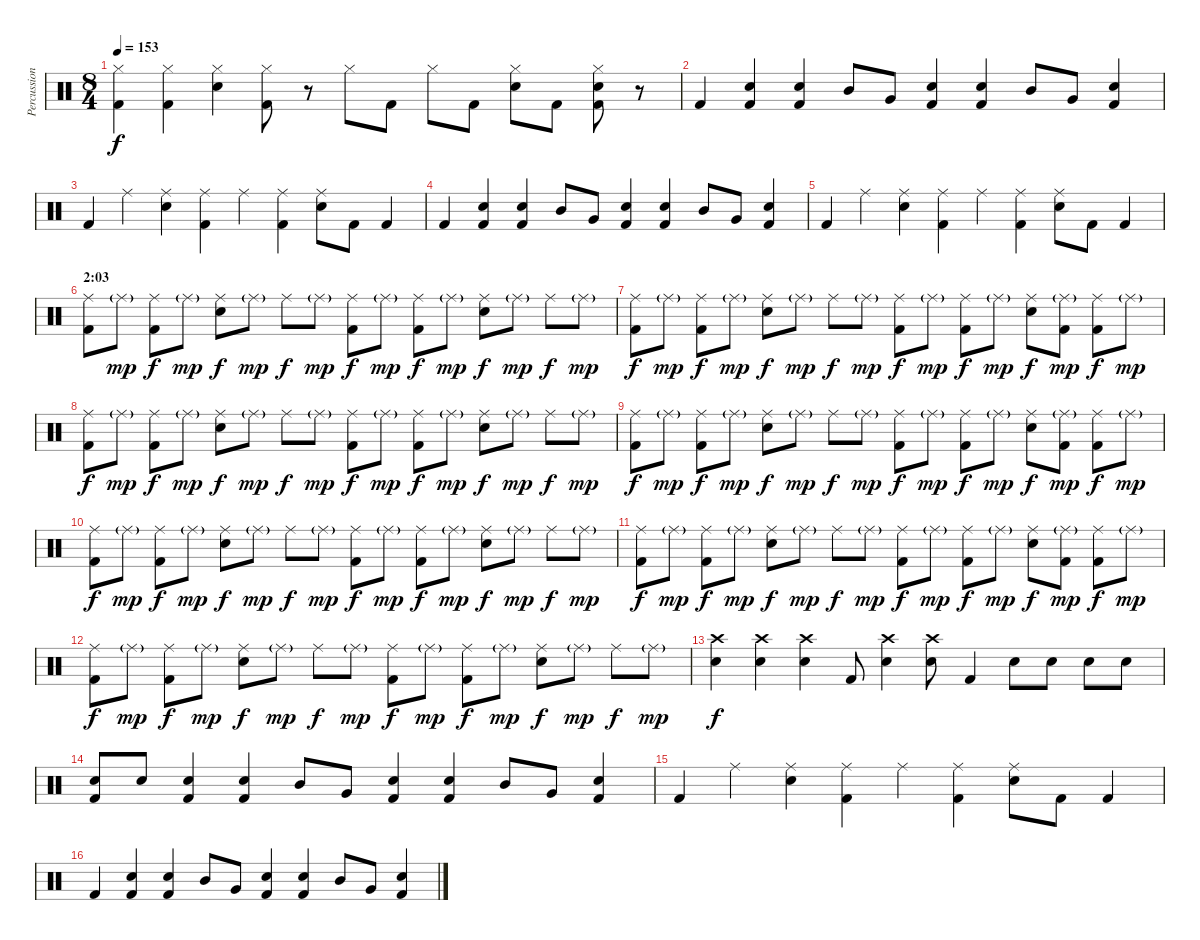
\track ("Percussion" "Percussion") {instrument percussion}
\staff {score}
\articulation defaults
\ts (8 4)
\tempo 153
\clef neutral
\ks c
("Hi-Hat (closed)" "Kick (hit) 2").4{dy f} ("Hi-Hat (closed)" "Kick (hit) 2").4 ("Hi-Hat (closed)" "Snare (hit) 2").4 ("Hi-Hat (closed)" "Kick (hit) 2").8 r.8 "Hi-Hat (closed)".8 "Kick (hit) 2".8 "Hi-Hat (closed)".8 "Kick (hit) 2".8 ("Hi-Hat (closed)" "Snare (hit) 2").8 "Kick (hit) 2".8 ("Hi-Hat (closed)" "Snare (hit) 2" "Kick (hit) 2").8 r.8 |
"Kick (hit) 2".4 ("Snare (hit) 2" "Kick (hit) 2").4 ("Snare (hit) 2" "Kick (hit) 2").4 "Mid Tom (hit)".8 "Very Low Tom (hit)".8 ("Snare (hit) 2" "Kick (hit) 2").4 ("Snare (hit) 2" "Kick (hit) 2").4 "Mid Tom (hit)".8 "Very Low Tom (hit)".8 ("Snare (hit) 2" "Kick (hit) 2").4 |
"Kick (hit) 2".4 "Ride (middle)".4 ("Ride (middle)" "Snare (hit) 2").4 ("Ride (middle)" "Kick (hit) 2").4 "Ride (middle)".4 ("Ride (middle)" "Kick (hit) 2").4 ("Ride (middle)" "Snare (hit) 2").8 "Kick (hit) 2".8 "Kick (hit) 2".4 |
"Kick (hit) 2".4 ("Snare (hit) 2" "Kick (hit) 2").4 ("Snare (hit) 2" "Kick (hit) 2").4 "Mid Tom (hit)".8 "Very Low Tom (hit)".8 ("Snare (hit) 2" "Kick (hit) 2").4 ("Snare (hit) 2" "Kick (hit) 2").4 "Mid Tom (hit)".8 "Very Low Tom (hit)".8 ("Snare (hit) 2" "Kick (hit) 2").4 |
"Kick (hit) 2".4 "Ride (middle)".4 ("Ride (middle)" "Snare (hit) 2").4 ("Ride (middle)" "Kick (hit) 2").4 "Ride (middle)".4 ("Ride (middle)" "Kick (hit) 2").4 ("Ride (middle)" "Snare (hit) 2").8 "Kick (hit) 2".8 "Kick (hit) 2".4 |
\section ("" "2:03")
("Ride (middle)" "Kick (hit) 2").8 "Ride (middle)"{g}.8{dy mp} ("Ride (middle)" "Kick (hit) 2").8{dy f} "Ride (middle)"{g}.8{dy mp} ("Ride (middle)" "Snare (hit) 2").8{dy f} "Ride (middle)"{g}.8{dy mp} "Ride (middle)".8{dy f} "Ride (middle)"{g}.8{dy mp} ("Ride (middle)" "Kick (hit) 2").8{dy f} "Ride (middle)"{g}.8{dy mp} ("Ride (middle)" "Kick (hit) 2").8{dy f} "Ride (middle)"{g}.8{dy mp} ("Ride (middle)" "Snare (hit) 2").8{dy f} "Ride (middle)"{g}.8{dy mp} "Ride (middle)".8{dy f} "Ride (middle)"{g}.8{dy mp} |
("Ride (middle)" "Kick (hit) 2").8{dy f} "Ride (middle)"{g}.8{dy mp} ("Ride (middle)" "Kick (hit) 2").8{dy f} "Ride (middle)"{g}.8{dy mp} ("Ride (middle)" "Snare (hit) 2").8{dy f} "Ride (middle)"{g}.8{dy mp} "Ride (middle)".8{dy f} "Ride (middle)"{g}.8{dy mp} ("Ride (middle)" "Kick (hit) 2").8{dy f} "Ride (middle)"{g}.8{dy mp} ("Ride (middle)" "Kick (hit) 2").8{dy f} "Ride (middle)"{g}.8{dy mp} ("Ride (middle)" "Snare (hit) 2").8{dy f} ("Ride (middle)"{g} "Kick (hit) 2").8{dy mp} ("Ride (middle)" "Kick (hit) 2").8{dy f} "Ride (middle)"{g}.8{dy mp} |
("Ride (middle)" "Kick (hit) 2").8{dy f} "Ride (middle)"{g}.8{dy mp} ("Ride (middle)" "Kick (hit) 2").8{dy f} "Ride (middle)"{g}.8{dy mp} ("Ride (middle)" "Snare (hit) 2").8{dy f} "Ride (middle)"{g}.8{dy mp} "Ride (middle)".8{dy f} "Ride (middle)"{g}.8{dy mp} ("Ride (middle)" "Kick (hit) 2").8{dy f} "Ride (middle)"{g}.8{dy mp} ("Ride (middle)" "Kick (hit) 2").8{dy f} "Ride (middle)"{g}.8{dy mp} ("Ride (middle)" "Snare (hit) 2").8{dy f} "Ride (middle)"{g}.8{dy mp} "Ride (middle)".8{dy f} "Ride (middle)"{g}.8{dy mp} |
("Ride (middle)" "Kick (hit) 2").8{dy f} "Ride (middle)"{g}.8{dy mp} ("Ride (middle)" "Kick (hit) 2").8{dy f} "Ride (middle)"{g}.8{dy mp} ("Ride (middle)" "Snare (hit) 2").8{dy f} "Ride (middle)"{g}.8{dy mp} "Ride (middle)".8{dy f} "Ride (middle)"{g}.8{dy mp} ("Ride (middle)" "Kick (hit) 2").8{dy f} "Ride (middle)"{g}.8{dy mp} ("Ride (middle)" "Kick (hit) 2").8{dy f} "Ride (middle)"{g}.8{dy mp} ("Ride (middle)" "Snare (hit) 2").8{dy f} ("Ride (middle)"{g} "Kick (hit) 2").8{dy mp} ("Ride (middle)" "Kick (hit) 2").8{dy f} "Ride (middle)"{g}.8{dy mp} |
("Ride (middle)" "Kick (hit) 2").8{dy f} "Ride (middle)"{g}.8{dy mp} ("Ride (middle)" "Kick (hit) 2").8{dy f} "Ride (middle)"{g}.8{dy mp} ("Ride (middle)" "Snare (hit) 2").8{dy f} "Ride (middle)"{g}.8{dy mp} "Ride (middle)".8{dy f} "Ride (middle)"{g}.8{dy mp} ("Ride (middle)" "Kick (hit) 2").8{dy f} "Ride (middle)"{g}.8{dy mp} ("Ride (middle)" "Kick (hit) 2").8{dy f} "Ride (middle)"{g}.8{dy mp} ("Ride (middle)" "Snare (hit) 2").8{dy f} "Ride (middle)"{g}.8{dy mp} "Ride (middle)".8{dy f} "Ride (middle)"{g}.8{dy mp} |
("Ride (middle)" "Kick (hit) 2").8{dy f} "Ride (middle)"{g}.8{dy mp} ("Ride (middle)" "Kick (hit) 2").8{dy f} "Ride (middle)"{g}.8{dy mp} ("Ride (middle)" "Snare (hit) 2").8{dy f} "Ride (middle)"{g}.8{dy mp} "Ride (middle)".8{dy f} "Ride (middle)"{g}.8{dy mp} ("Ride (middle)" "Kick (hit) 2").8{dy f} "Ride (middle)"{g}.8{dy mp} ("Ride (middle)" "Kick (hit) 2").8{dy f} "Ride (middle)"{g}.8{dy mp} ("Ride (middle)" "Snare (hit) 2").8{dy f} ("Ride (middle)"{g} "Kick (hit) 2").8{dy mp} ("Ride (middle)" "Kick (hit) 2").8{dy f} "Ride (middle)"{g}.8{dy mp} |
("Ride (middle)" "Kick (hit) 2").8{dy f} "Ride (middle)"{g}.8{dy mp} ("Ride (middle)" "Kick (hit) 2").8{dy f} "Ride (middle)"{g}.8{dy mp} ("Ride (middle)" "Snare (hit) 2").8{dy f} "Ride (middle)"{g}.8{dy mp} "Ride (middle)".8{dy f} "Ride (middle)"{g}.8{dy mp} ("Ride (middle)" "Kick (hit) 2").8{dy f} "Ride (middle)"{g}.8{dy mp} ("Ride (middle)" "Kick (hit) 2").8{dy f} "Ride (middle)"{g}.8{dy mp} ("Ride (middle)" "Snare (hit) 2").8{dy f} "Ride (middle)"{g}.8{dy mp} "Ride (middle)".8{dy f} "Ride (middle)"{g}.8{dy mp} |
("Crash high (hit)" "Snare (hit) 2").4{dy f} ("Crash high (hit)" "Snare (hit) 2").4 ("Crash high (hit)" "Snare (hit) 2").4 "Kick (hit) 2".8 ("Crash high (hit)" "Snare (hit) 2").4 ("Crash high (hit)" "Snare (hit) 2").8 "Kick (hit) 2".4 "Snare (hit) 2".8 "Snare (hit) 2".8 "Snare (hit) 2".8 "Snare (hit) 2".8 |
("Snare (hit) 2" "Kick (hit) 2").8 "Snare (hit) 2".8 ("Snare (hit) 2" "Kick (hit) 2").4 ("Snare (hit) 2" "Kick (hit) 2").4 "Mid Tom (hit)".8 "Very Low Tom (hit)".8 ("Snare (hit) 2" "Kick (hit) 2").4 ("Snare (hit) 2" "Kick (hit) 2").4 "Mid Tom (hit)".8 "Very Low Tom (hit)".8 ("Snare (hit) 2" "Kick (hit) 2").4 |
"Kick (hit) 2".4 "Ride (middle)".4 ("Ride (middle)" "Snare (hit) 2").4 ("Ride (middle)" "Kick (hit) 2").4 "Ride (middle)".4 ("Ride (middle)" "Kick (hit) 2").4 ("Ride (middle)" "Snare (hit) 2").8 "Kick (hit) 2".8 "Kick (hit) 2".4 |
"Kick (hit) 2".4 ("Snare (hit) 2" "Kick (hit) 2").4 ("Snare (hit) 2" "Kick (hit) 2").4 "Mid Tom (hit)".8 "Very Low Tom (hit)".8 ("Snare (hit) 2" "Kick (hit) 2").4 ("Snare (hit) 2" "Kick (hit) 2").4 "Mid Tom (hit)".8 "Very Low Tom (hit)".8 ("Snare (hit) 2" "Kick (hit) 2").4
